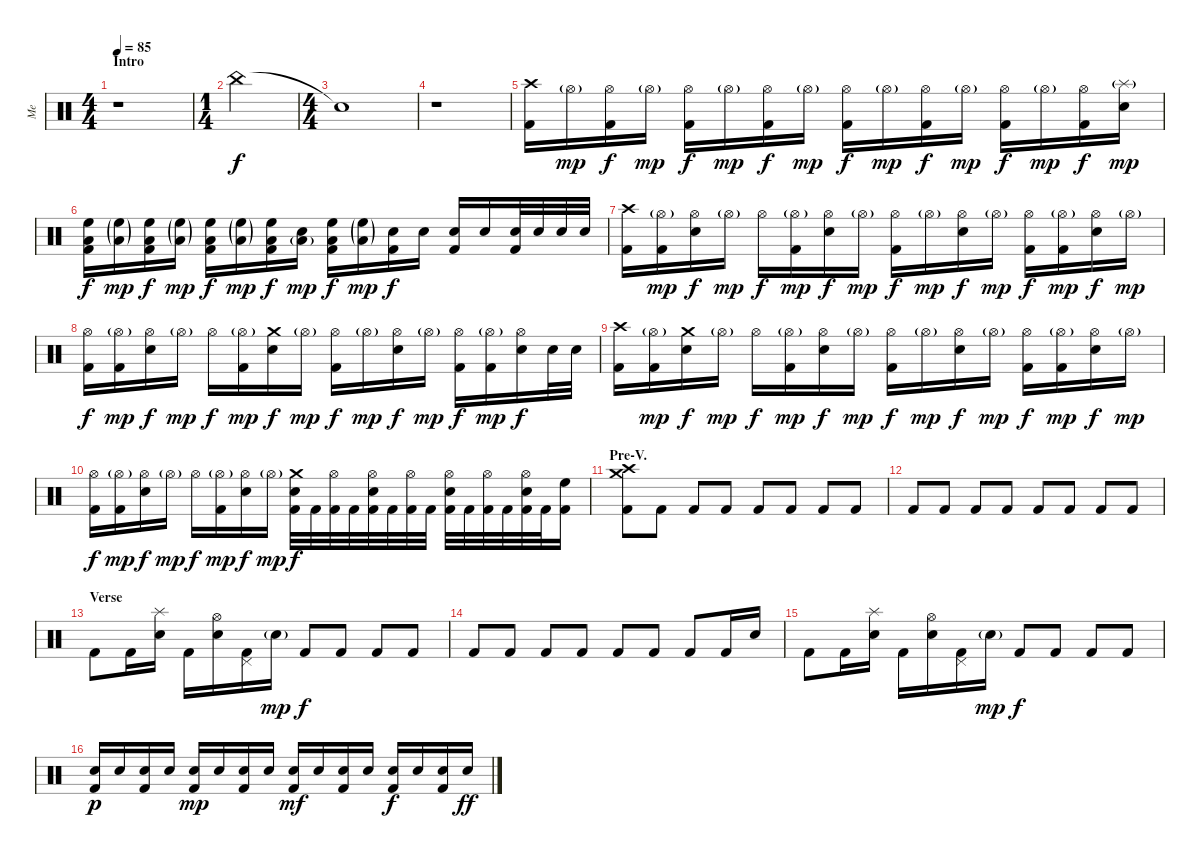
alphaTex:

\track ("Me" "Me") {instrument percussion}
\staff {score}
\articulation defaults
\ts (4 4)
\section ("" "Intro")
\tempo 85
\clef neutral
\ks c
r.1{dy f} |
\ts (1 4)
"China (hit)".4 |
\ts (4 4)
"Snare (hit)"{t}.1 |
r.1 |
("Crash high (hit)" "Kick (hit) 2").16 "Hi-Hat (open)"{g}.16{dy mp} ("Hi-Hat (open)" "Kick (hit) 2").16{dy f} "Hi-Hat (open)"{g}.16{dy mp} ("Hi-Hat (open)" "Kick (hit) 2").16{dy f} "Hi-Hat (open)"{g}.16{dy mp} ("Hi-Hat (open)" "Kick (hit) 2").16{dy f} "Hi-Hat (open)"{g}.16{dy mp} ("Hi-Hat (open)" "Kick (hit) 2").16{dy f} "Hi-Hat (open)"{g}.16{dy mp} ("Hi-Hat (open)" "Kick (hit) 2").16{dy f} "Hi-Hat (open)"{g}.16{dy mp} ("Hi-Hat (open)" "Kick (hit) 2").16{dy f} "Hi-Hat (open)"{g}.16{dy mp} ("Hi-Hat (open)" "Kick (hit) 2").16{dy f} ("Splash (hit)"{g} "Electric Snare (hit)").16{dy mp} |
("High Floor Tom (hit)" "Low Tom (hit)" "Kick (hit) 2").16{dy f} ("High Floor Tom (hit)"{g} "Low Tom (hit)"{g}).16{dy mp} ("High Floor Tom (hit)" "Low Tom (hit)" "Kick (hit) 2").16{dy f} ("High Floor Tom (hit)"{g} "Low Tom (hit)"{g}).16{dy mp} ("High Floor Tom (hit)" "Low Tom (hit)" "Kick (hit) 2").16{dy f} ("High Floor Tom (hit)"{g} "Low Tom (hit)"{g}).16{dy mp} ("High Floor Tom (hit)" "Low Tom (hit)" "Kick (hit) 2").16{dy f} ("Electric Snare (hit)" "Low Tom (hit)"{g}).16{dy mp} ("High Floor Tom (hit)" "Low Tom (hit)" "Kick (hit) 2").16{dy f} ("High Floor Tom (hit)"{g} "Low Tom (hit)"{g}).16{dy mp} ("Electric Snare (hit)" "Kick (hit) 2").16{dy f} "Electric Snare (hit)".16 ("Electric Snare (hit)" "Kick (hit) 2").16 "Electric Snare (hit)".16 ("Electric Snare (hit)" "Kick (hit) 2").32 "Electric Snare (hit)".32 "Electric Snare (hit)".32 "Electric Snare (hit)".32 |
("Crash high (hit)" "Kick (hit) 2").16 ("Hi-Hat (open)"{g} "Kick (hit) 2").16{dy mp} ("Hi-Hat (open)" "Electric Snare (hit)").16{dy f} "Hi-Hat (open)"{g}.16{dy mp} "Hi-Hat (open)".16{dy f} ("Hi-Hat (open)"{g} "Kick (hit) 2").16{dy mp} ("Hi-Hat (open)" "Electric Snare (hit)").16{dy f} "Hi-Hat (open)"{g}.16{dy mp} ("Hi-Hat (open)" "Kick (hit) 2").16{dy f} "Hi-Hat (open)"{g}.16{dy mp} ("Hi-Hat (open)" "Electric Snare (hit)").16{dy f} "Hi-Hat (open)"{g}.16{dy mp} ("Hi-Hat (open)" "Kick (hit) 2").16{dy f} ("Hi-Hat (open)"{g} "Kick (hit) 2").16{dy mp} ("Hi-Hat (open)" "Electric Snare (hit)").16{dy f} "Hi-Hat (open)"{g}.16{dy mp} |
("Hi-Hat (open)" "Kick (hit) 2").16{dy f} ("Hi-Hat (open)"{g} "Kick (hit) 2").16{dy mp} ("Hi-Hat (open)" "Electric Snare (hit)").16{dy f} "Hi-Hat (open)"{g}.16{dy mp} "Hi-Hat (open)".16{dy f} ("Hi-Hat (open)"{g} "Kick (hit) 2").16{dy mp} ("Crash medium (hit)" "Electric Snare (hit)").16{dy f} "Hi-Hat (open)"{g}.16{dy mp} ("Hi-Hat (open)" "Kick (hit) 2").16{dy f} "Hi-Hat (open)"{g}.16{dy mp} ("Hi-Hat (open)" "Electric Snare (hit)").16{dy f} "Hi-Hat (open)"{g}.16{dy mp} ("Hi-Hat (open)" "Kick (hit) 2").16{dy f} ("Hi-Hat (open)"{g} "Kick (hit) 2").16{dy mp} ("Hi-Hat (open)" "Electric Snare (hit)").16{dy f} "Electric Snare (hit)".32 "Electric Snare (hit)".32 |
("Crash high (hit)" "Kick (hit) 2").16 ("Hi-Hat (open)"{g} "Kick (hit) 2").16{dy mp} ("Crash medium (hit)" "Electric Snare (hit)").16{dy f} "Hi-Hat (open)"{g}.16{dy mp} "Hi-Hat (open)".16{dy f} ("Hi-Hat (open)"{g} "Kick (hit) 2").16{dy mp} ("Hi-Hat (open)" "Electric Snare (hit)").16{dy f} "Hi-Hat (open)"{g}.16{dy mp} ("Hi-Hat (open)" "Kick (hit) 2").16{dy f} "Hi-Hat (open)"{g}.16{dy mp} ("Hi-Hat (open)" "Electric Snare (hit)").16{dy f} "Hi-Hat (open)"{g}.16{dy mp} ("Hi-Hat (open)" "Kick (hit) 2").16{dy f} ("Hi-Hat (open)"{g} "Kick (hit) 2").16{dy mp} ("Hi-Hat (open)" "Electric Snare (hit)").16{dy f} "Hi-Hat (open)"{g}.16{dy mp} |
("Hi-Hat (open)" "Kick (hit) 2").16{dy f} ("Hi-Hat (open)"{g} "Kick (hit) 2").16{dy mp} ("Hi-Hat (open)" "Electric Snare (hit)").16{dy f} "Hi-Hat (open)"{g}.16{dy mp} "Hi-Hat (open)".16{dy f} ("Hi-Hat (open)"{g} "Kick (hit) 2").16{dy mp} ("Hi-Hat (open)" "Electric Snare (hit)").16{dy f} "Hi-Hat (open)"{g}.16{dy mp} ("Crash medium (hit)" "Electric Snare (hit)" "Kick (hit) 2").32{dy f} "Kick (hit) 2".32 ("Hi-Hat (open)" "Kick (hit) 2").32 "Kick (hit) 2".32 ("Hi-Hat (open)" "Electric Snare (hit)" "Kick (hit) 2").32 "Kick (hit) 2".32 ("Hi-Hat (open)" "Kick (hit) 2").32 "Kick (hit) 2".32 ("Hi-Hat (open)" "Electric Snare (hit)" "Kick (hit) 2").32 "Kick (hit) 2".32 ("Hi-Hat (open)" "Kick (hit) 2").32 "Kick (hit) 2".32 ("Hi-Hat (open)" "Electric Snare (hit)" "Kick (hit) 2").32 "Kick (hit) 2".32 ("High Floor Tom (hit)" "Kick (hit) 2").16 |
\section ("" "Pre-V.")
("Crash medium (hit)" "Crash high (hit)" "Kick (hit) 2").8 "Kick (hit) 2".8 "Kick (hit) 2".8 "Kick (hit) 2".8 "Kick (hit) 2".8 "Kick (hit) 2".8 "Kick (hit) 2".8 "Kick (hit) 2".8 |
"Kick (hit) 2".8 "Kick (hit) 2".8 "Kick (hit) 2".8 "Kick (hit) 2".8 "Kick (hit) 2".8 "Kick (hit) 2".8 "Kick (hit) 2".8 "Kick (hit) 2".8 |
\section ("" "Verse")
"Kick (hit) 2".8 "Kick (hit) 2".16 ("Splash (hit)" "Electric Snare (hit)").16 "Kick (hit) 2".16 ("Hi-Hat (open)" "Electric Snare (hit)").16 ("Pedal Hi-Hat (hit)" "Kick (hit) 2").16 "Electric Snare (hit)"{g}.16{dy mp} "Kick (hit) 2".8{dy f} "Kick (hit) 2".8 "Kick (hit) 2".8 "Kick (hit) 2".8 |
"Kick (hit) 2".8 "Kick (hit) 2".8 "Kick (hit) 2".8 "Kick (hit) 2".8 "Kick (hit) 2".8 "Kick (hit) 2".8 "Kick (hit) 2".8 "Kick (hit) 2".16 "Electric Snare (hit)".16 |
"Kick (hit) 2".8 "Kick (hit) 2".16 ("Splash (hit)" "Electric Snare (hit)").16 "Kick (hit) 2".16 ("Hi-Hat (open)" "Electric Snare (hit)").16 ("Pedal Hi-Hat (hit)" "Kick (hit) 2").16 "Electric Snare (hit)"{g}.16{dy mp} "Kick (hit) 2".8{dy f} "Kick (hit) 2".8 "Kick (hit) 2".8 "Kick (hit) 2".8 |
("Electric Snare (hit)" "Kick (hit) 2").16{dy p} "Electric Snare (hit)".16 ("Electric Snare (hit)" "Kick (hit) 2").16 "Electric Snare (hit)".16 ("Electric Snare (hit)" "Kick (hit) 2").16{dy mp} "Electric Snare (hit)".16 ("Electric Snare (hit)" "Kick (hit) 2").16 "Electric Snare (hit)".16 ("Electric Snare (hit)" "Kick (hit) 2").16{dy mf} "Electric Snare (hit)".16 ("Electric Snare (hit)" "Kick (hit) 2").16 "Electric Snare (hit)".16 ("Electric Snare (hit)" "Kick (hit) 2").16{dy f} "Electric Snare (hit)".16 ("Electric Snare (hit)" "Kick (hit) 2").16 "Electric Snare (hit)".16{dy ff}
